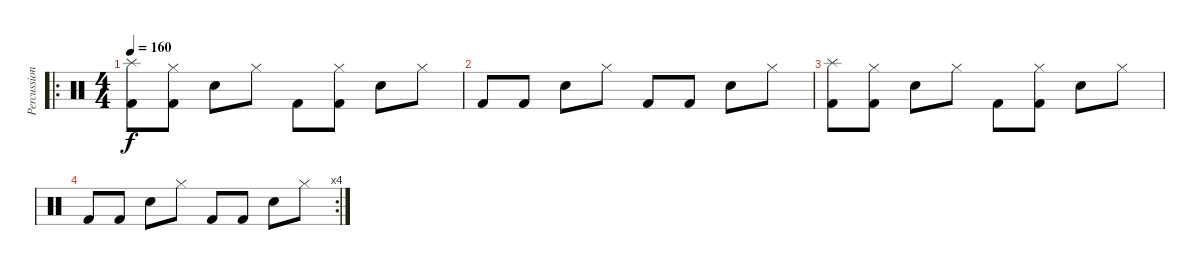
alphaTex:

\track ("Percussions" "Percussion") {instrument percussion}
\staff {score}
\articulation defaults
\ro
\ts (4 4)
\tempo 160
\clef neutral
\ks c
("Kick (hit) 2" "Splash (hit)").8{dy f} ("Kick (hit) 2" "Hi-Hat (closed)").8 "Electric Snare (hit)".8 "Hi-Hat (closed)".8 "Kick (hit) 2".8 ("Kick (hit) 2" "Hi-Hat (closed)").8 "Electric Snare (hit)".8 "Hi-Hat (closed)".8 |
"Kick (hit) 2".8 "Kick (hit) 2".8 "Electric Snare (hit)".8 "Hi-Hat (closed)".8 "Kick (hit) 2".8 "Kick (hit) 2".8 "Electric Snare (hit)".8 "Hi-Hat (closed)".8 |
("Kick (hit) 2" "Splash (hit)").8 ("Kick (hit) 2" "Hi-Hat (closed)").8 "Electric Snare (hit)".8 "Hi-Hat (closed)".8 "Kick (hit) 2".8 ("Kick (hit) 2" "Hi-Hat (closed)").8 "Electric Snare (hit)".8 "Hi-Hat (closed)".8 |
\rc 4 "Kick (hit) 2".8 "Kick (hit) 2".8 "Electric Snare (hit)".8 "Hi-Hat (closed)".8 "Kick (hit) 2".8 "Kick (hit) 2".8 "Electric Snare (hit)".8 "Hi-Hat (closed)".8
